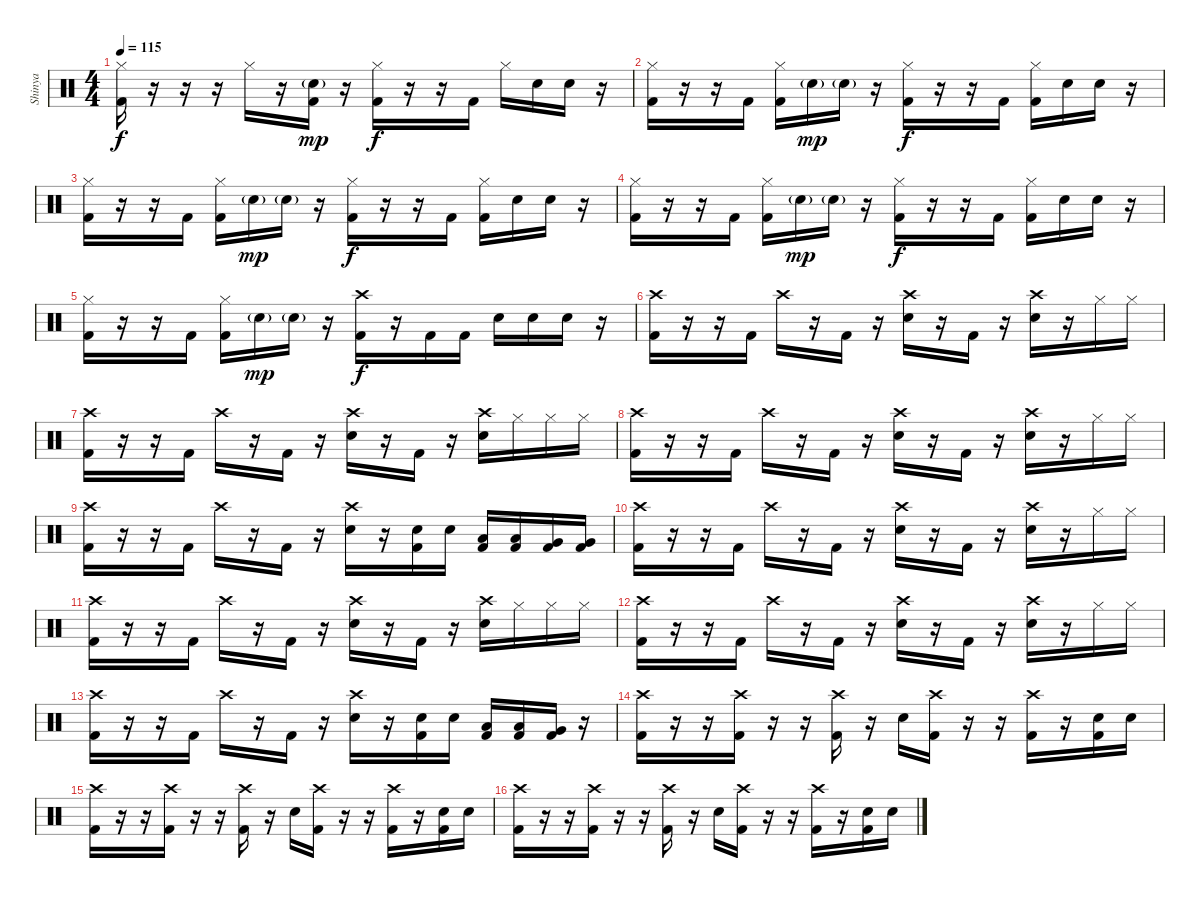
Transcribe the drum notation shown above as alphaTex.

\track ("Shinya" "Shinya") {instrument percussion}
\staff {score}
\articulation defaults
\ts (4 4)
\tempo 115
\clef neutral
\ks c
("Hi-Hat (closed)" "Kick (hit) 2").16{dy f} r.16 r.16 r.16 "Hi-Hat (closed)".16 r.16 ("Electric Snare (hit)"{g} "Kick (hit) 2").16{dy mp} r.16 ("Hi-Hat (closed)" "Kick (hit) 2").16{dy f} r.16 r.16 "Kick (hit) 2".16 "Hi-Hat (closed)".16 "Electric Snare (hit)".16 "Electric Snare (hit)".16 r.16 |
("Hi-Hat (closed)" "Kick (hit) 2").16 r.16 r.16 "Kick (hit) 2".16 ("Hi-Hat (closed)" "Kick (hit) 2").16 "Electric Snare (hit)"{g}.16{dy mp} "Electric Snare (hit)"{g}.16 r.16 ("Hi-Hat (closed)" "Kick (hit) 2").16{dy f} r.16 r.16 "Kick (hit) 2".16 ("Hi-Hat (closed)" "Kick (hit) 2").16 "Electric Snare (hit)".16 "Electric Snare (hit)".16 r.16 |
("Hi-Hat (closed)" "Kick (hit) 2").16 r.16 r.16 "Kick (hit) 2".16 ("Hi-Hat (closed)" "Kick (hit) 2").16 "Electric Snare (hit)"{g}.16{dy mp} "Electric Snare (hit)"{g}.16 r.16 ("Hi-Hat (closed)" "Kick (hit) 2").16{dy f} r.16 r.16 "Kick (hit) 2".16 ("Hi-Hat (closed)" "Kick (hit) 2").16 "Electric Snare (hit)".16 "Electric Snare (hit)".16 r.16 |
("Hi-Hat (closed)" "Kick (hit) 2").16 r.16 r.16 "Kick (hit) 2".16 ("Hi-Hat (closed)" "Kick (hit) 2").16 "Electric Snare (hit)"{g}.16{dy mp} "Electric Snare (hit)"{g}.16 r.16 ("Hi-Hat (closed)" "Kick (hit) 2").16{dy f} r.16 r.16 "Kick (hit) 2".16 ("Hi-Hat (closed)" "Kick (hit) 2").16 "Electric Snare (hit)".16 "Electric Snare (hit)".16 r.16 |
("Hi-Hat (closed)" "Kick (hit) 2").16 r.16 r.16 "Kick (hit) 2".16 ("Hi-Hat (closed)" "Kick (hit) 2").16 "Electric Snare (hit)"{g}.16{dy mp} "Electric Snare (hit)"{g}.16 r.16 ("Crash high (hit)" "Kick (hit) 2").16{dy f} r.16 "Kick (hit) 2".16 "Kick (hit) 2".16 "Electric Snare (hit)".16 "Electric Snare (hit)".16 "Electric Snare (hit)".16 r.16 |
("Crash high (hit)" "Kick (hit) 2").16 r.16 r.16 "Kick (hit) 2".16 "Crash high (hit)".16 r.16 "Kick (hit) 2".16 r.16 ("Crash high (hit)" "Electric Snare (hit)").16 r.16 "Kick (hit) 2".16 r.16 ("Crash high (hit)" "Electric Snare (hit)").16 r.16 "Hi-Hat (closed)".16 "Hi-Hat (closed)".16 |
("Crash high (hit)" "Kick (hit) 2").16 r.16 r.16 "Kick (hit) 2".16 "Crash high (hit)".16 r.16 "Kick (hit) 2".16 r.16 ("Crash high (hit)" "Electric Snare (hit)").16 r.16 "Kick (hit) 2".16 r.16 ("Crash high (hit)" "Electric Snare (hit)").16 "Hi-Hat (closed)".16 "Hi-Hat (closed)".16 "Hi-Hat (closed)".16 |
("Crash high (hit)" "Kick (hit) 2").16 r.16 r.16 "Kick (hit) 2".16 "Crash high (hit)".16 r.16 "Kick (hit) 2".16 r.16 ("Crash high (hit)" "Electric Snare (hit)").16 r.16 "Kick (hit) 2".16 r.16 ("Crash high (hit)" "Electric Snare (hit)").16 r.16 "Hi-Hat (closed)".16 "Hi-Hat (closed)".16 |
("Crash high (hit)" "Kick (hit) 2").16 r.16 r.16 "Kick (hit) 2".16 "Crash high (hit)".16 r.16 "Kick (hit) 2".16 r.16 ("Crash high (hit)" "Electric Snare (hit)").16 r.16 ("Electric Snare (hit)" "Kick (hit) 2").16 "Electric Snare (hit)".16 ("Low Tom (hit)" "Kick (hit) 2").16 ("Low Tom (hit)" "Kick (hit) 2").16 ("Very Low Tom (hit)" "Kick (hit) 2").16 ("Very Low Tom (hit)" "Kick (hit) 2").16 |
("Crash high (hit)" "Kick (hit) 2").16 r.16 r.16 "Kick (hit) 2".16 "Crash high (hit)".16 r.16 "Kick (hit) 2".16 r.16 ("Crash high (hit)" "Electric Snare (hit)").16 r.16 "Kick (hit) 2".16 r.16 ("Crash high (hit)" "Electric Snare (hit)").16 r.16 "Hi-Hat (closed)".16 "Hi-Hat (closed)".16 |
("Crash high (hit)" "Kick (hit) 2").16 r.16 r.16 "Kick (hit) 2".16 "Crash high (hit)".16 r.16 "Kick (hit) 2".16 r.16 ("Crash high (hit)" "Electric Snare (hit)").16 r.16 "Kick (hit) 2".16 r.16 ("Crash high (hit)" "Electric Snare (hit)").16 "Hi-Hat (closed)".16 "Hi-Hat (closed)".16 "Hi-Hat (closed)".16 |
("Crash high (hit)" "Kick (hit) 2").16 r.16 r.16 "Kick (hit) 2".16 "Crash high (hit)".16 r.16 "Kick (hit) 2".16 r.16 ("Crash high (hit)" "Electric Snare (hit)").16 r.16 "Kick (hit) 2".16 r.16 ("Crash high (hit)" "Electric Snare (hit)").16 r.16 "Hi-Hat (closed)".16 "Hi-Hat (closed)".16 |
("Crash high (hit)" "Kick (hit) 2").16 r.16 r.16 "Kick (hit) 2".16 "Crash high (hit)".16 r.16 "Kick (hit) 2".16 r.16 ("Crash high (hit)" "Electric Snare (hit)").16 r.16 ("Electric Snare (hit)" "Kick (hit) 2").16 "Electric Snare (hit)".16 ("Low Tom (hit)" "Kick (hit) 2").16 ("Low Tom (hit)" "Kick (hit) 2").16 ("Very Low Tom (hit)" "Kick (hit) 2").16 r.16 |
("Crash high (hit)" "Kick (hit) 2").16 r.16 r.16 ("Crash high (hit)" "Kick (hit) 2").16 r.16 r.16 ("Crash high (hit)" "Kick (hit) 2").16 r.16 "Electric Snare (hit)".16 ("Crash high (hit)" "Kick (hit) 2").16 r.16 r.16 ("Crash high (hit)" "Kick (hit) 2").16 r.16 ("Electric Snare (hit)" "Kick (hit) 2").16 "Electric Snare (hit)".16 |
("Crash high (hit)" "Kick (hit) 2").16 r.16 r.16 ("Crash high (hit)" "Kick (hit) 2").16 r.16 r.16 ("Crash high (hit)" "Kick (hit) 2").16 r.16 "Electric Snare (hit)".16 ("Crash high (hit)" "Kick (hit) 2").16 r.16 r.16 ("Crash high (hit)" "Kick (hit) 2").16 r.16 ("Electric Snare (hit)" "Kick (hit) 2").16 "Electric Snare (hit)".16 |
("Crash high (hit)" "Kick (hit) 2").16 r.16 r.16 ("Crash high (hit)" "Kick (hit) 2").16 r.16 r.16 ("Crash high (hit)" "Kick (hit) 2").16 r.16 "Electric Snare (hit)".16 ("Crash high (hit)" "Kick (hit) 2").16 r.16 r.16 ("Crash high (hit)" "Kick (hit) 2").16 r.16 ("Electric Snare (hit)" "Kick (hit) 2").16 "Electric Snare (hit)".16
